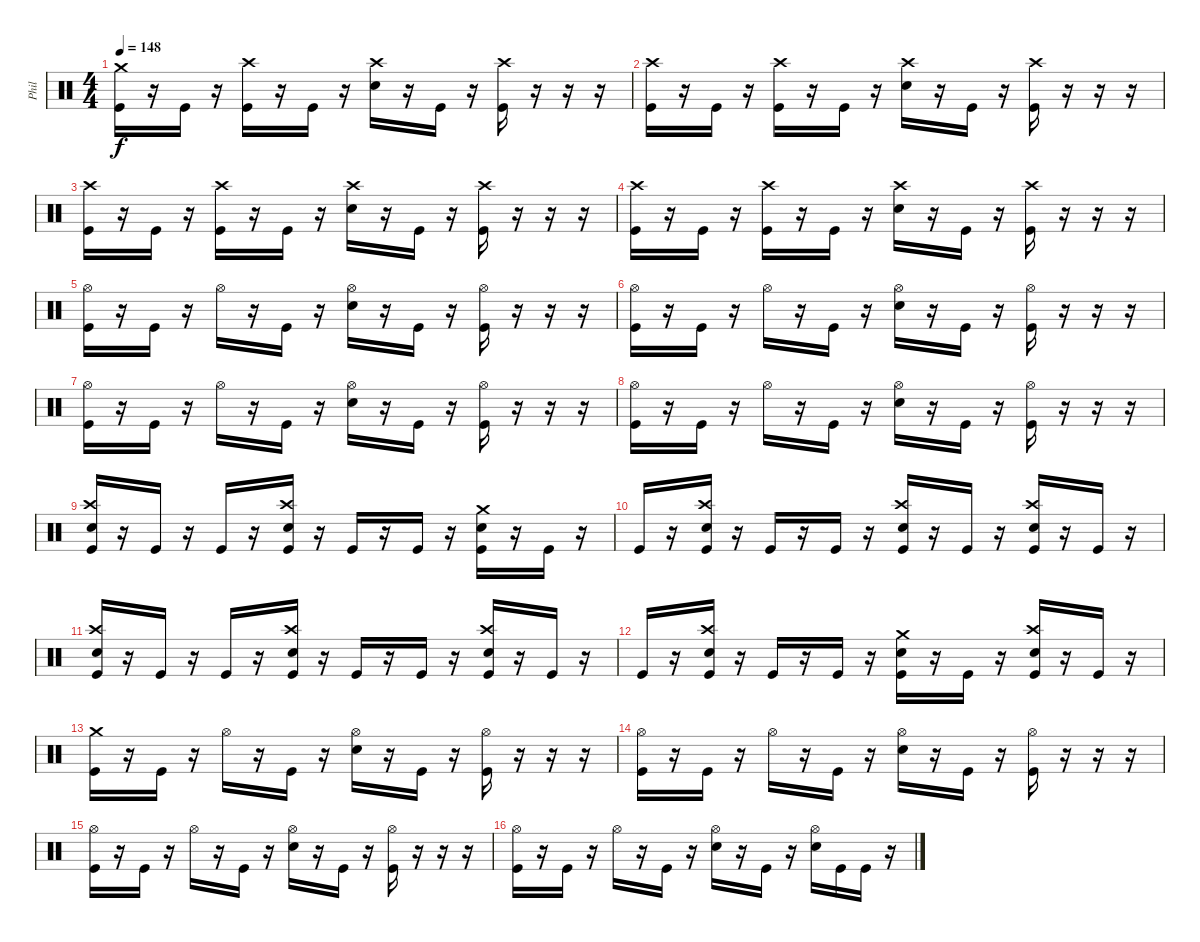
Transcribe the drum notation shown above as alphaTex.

\track ("Phil" "Phil") {instrument percussion}
\staff {score}
\articulation defaults
\ts (4 4)
\tempo 148
\clef neutral
\ks c
("Crash medium (hit)" "Kick (hit)").16{dy f} r.16 "Kick (hit)".16 r.16 ("Crash high (hit)" "Kick (hit)").16 r.16 "Kick (hit)".16 r.16 ("Crash high (hit)" "Electric Snare (hit)").16 r.16 "Kick (hit)".16 r.16 ("Crash high (hit)" "Kick (hit)").16 r.16 r.16 r.16 |
("Crash high (hit)" "Kick (hit)").16 r.16 "Kick (hit)".16 r.16 ("Crash high (hit)" "Kick (hit)").16 r.16 "Kick (hit)".16 r.16 ("Crash high (hit)" "Electric Snare (hit)").16 r.16 "Kick (hit)".16 r.16 ("Crash high (hit)" "Kick (hit)").16 r.16 r.16 r.16 |
("Crash high (hit)" "Kick (hit)").16 r.16 "Kick (hit)".16 r.16 ("Crash high (hit)" "Kick (hit)").16 r.16 "Kick (hit)".16 r.16 ("Crash high (hit)" "Electric Snare (hit)").16 r.16 "Kick (hit)".16 r.16 ("Crash high (hit)" "Kick (hit)").16 r.16 r.16 r.16 |
("Crash high (hit)" "Kick (hit)").16 r.16 "Kick (hit)".16 r.16 ("Crash high (hit)" "Kick (hit)").16 r.16 "Kick (hit)".16 r.16 ("Crash high (hit)" "Electric Snare (hit)").16 r.16 "Kick (hit)".16 r.16 ("Crash high (hit)" "Kick (hit)").16 r.16 r.16 r.16 |
("Hi-Hat (open)" "Kick (hit)").16 r.16 "Kick (hit)".16 r.16 "Hi-Hat (open)".16 r.16 "Kick (hit)".16 r.16 ("Hi-Hat (open)" "Electric Snare (hit)").16 r.16 "Kick (hit)".16 r.16 ("Hi-Hat (open)" "Kick (hit)").16 r.16 r.16 r.16 |
("Hi-Hat (open)" "Kick (hit)").16 r.16 "Kick (hit)".16 r.16 "Hi-Hat (open)".16 r.16 "Kick (hit)".16 r.16 ("Hi-Hat (open)" "Electric Snare (hit)").16 r.16 "Kick (hit)".16 r.16 ("Hi-Hat (open)" "Kick (hit)").16 r.16 r.16 r.16 |
("Hi-Hat (open)" "Kick (hit)").16 r.16 "Kick (hit)".16 r.16 "Hi-Hat (open)".16 r.16 "Kick (hit)".16 r.16 ("Hi-Hat (open)" "Electric Snare (hit)").16 r.16 "Kick (hit)".16 r.16 ("Hi-Hat (open)" "Kick (hit)").16 r.16 r.16 r.16 |
("Hi-Hat (open)" "Kick (hit)").16 r.16 "Kick (hit)".16 r.16 "Hi-Hat (open)".16 r.16 "Kick (hit)".16 r.16 ("Hi-Hat (open)" "Electric Snare (hit)").16 r.16 "Kick (hit)".16 r.16 ("Hi-Hat (open)" "Kick (hit)").16 r.16 r.16 r.16 |
("Crash high (hit)" "Electric Snare (hit)" "Kick (hit)").16 r.16 "Kick (hit)".16 r.16 "Kick (hit)".16 r.16 ("Crash high (hit)" "Electric Snare (hit)" "Kick (hit)").16 r.16 "Kick (hit)".16 r.16 "Kick (hit)".16 r.16 ("Crash medium (hit)" "Electric Snare (hit)" "Kick (hit)").16 r.16 "Kick (hit)".16 r.16 |
"Kick (hit)".16 r.16 ("Crash high (hit)" "Electric Snare (hit)" "Kick (hit)").16 r.16 "Kick (hit)".16 r.16 "Kick (hit)".16 r.16 ("Crash high (hit)" "Electric Snare (hit)" "Kick (hit)").16 r.16 "Kick (hit)".16 r.16 ("Crash high (hit)" "Electric Snare (hit)" "Kick (hit)").16 r.16 "Kick (hit)".16 r.16 |
("Crash high (hit)" "Electric Snare (hit)" "Kick (hit)").16 r.16 "Kick (hit)".16 r.16 "Kick (hit)".16 r.16 ("Crash high (hit)" "Electric Snare (hit)" "Kick (hit)").16 r.16 "Kick (hit)".16 r.16 "Kick (hit)".16 r.16 ("Crash high (hit)" "Electric Snare (hit)" "Kick (hit)").16 r.16 "Kick (hit)".16 r.16 |
"Kick (hit)".16 r.16 ("Crash high (hit)" "Electric Snare (hit)" "Kick (hit)").16 r.16 "Kick (hit)".16 r.16 "Kick (hit)".16 r.16 ("Crash medium (hit)" "Electric Snare (hit)" "Kick (hit)").16 r.16 "Kick (hit)".16 r.16 ("Crash high (hit)" "Electric Snare (hit)" "Kick (hit)").16 r.16 "Kick (hit)".16 r.16 |
("Crash medium (hit)" "Kick (hit)").16 r.16 "Kick (hit)".16 r.16 "Hi-Hat (open)".16 r.16 "Kick (hit)".16 r.16 ("Hi-Hat (open)" "Electric Snare (hit)").16 r.16 "Kick (hit)".16 r.16 ("Hi-Hat (open)" "Kick (hit)").16 r.16 r.16 r.16 |
("Hi-Hat (open)" "Kick (hit)").16 r.16 "Kick (hit)".16 r.16 "Hi-Hat (open)".16 r.16 "Kick (hit)".16 r.16 ("Hi-Hat (open)" "Electric Snare (hit)").16 r.16 "Kick (hit)".16 r.16 ("Hi-Hat (open)" "Kick (hit)").16 r.16 r.16 r.16 |
("Hi-Hat (open)" "Kick (hit)").16 r.16 "Kick (hit)".16 r.16 "Hi-Hat (open)".16 r.16 "Kick (hit)".16 r.16 ("Hi-Hat (open)" "Electric Snare (hit)").16 r.16 "Kick (hit)".16 r.16 ("Hi-Hat (open)" "Kick (hit)").16 r.16 r.16 r.16 |
("Hi-Hat (open)" "Kick (hit)").16 r.16 "Kick (hit)".16 r.16 "Hi-Hat (open)".16 r.16 "Kick (hit)".16 r.16 ("Hi-Hat (open)" "Electric Snare (hit)").16 r.16 "Kick (hit)".16 r.16 ("Hi-Hat (open)" "Electric Snare (hit)").16 "Kick (hit)".16 "Kick (hit)".16 r.16
